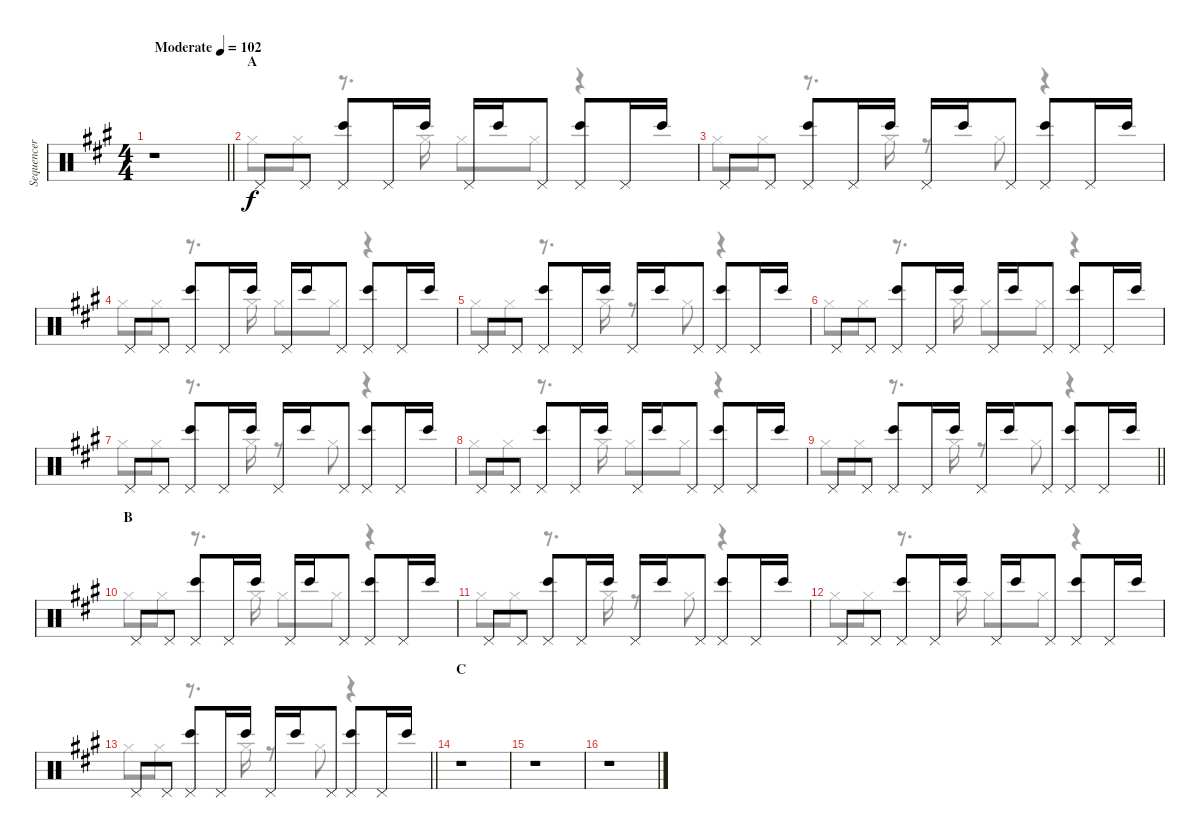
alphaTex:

\track ("Sequencer" "Sequencer") {instrument percussion}
\staff {score}
\articulation defaults
\voice
\ts (4 4)
\tempo (102 "Moderate")
\clef neutral
\barLineRight lightlight
\ks a
r.1{dy f} |
\section ("" "A")
"Pedal Hi-Hat (hit)".8{volume 10} "Pedal Hi-Hat (hit)".8 ("Pedal Hi-Hat (hit)" "Bongo High (hit)").8 "Pedal Hi-Hat (hit)".16 "Bongo High (hit)".16 "Pedal Hi-Hat (hit)".16 "Bongo High (hit)".16 "Pedal Hi-Hat (hit)".8 ("Pedal Hi-Hat (hit)" "Bongo High (hit)").8 "Pedal Hi-Hat (hit)".16 "Bongo High (hit)".16 |
"Pedal Hi-Hat (hit)".8 "Pedal Hi-Hat (hit)".8 ("Pedal Hi-Hat (hit)" "Bongo High (hit)").8 "Pedal Hi-Hat (hit)".16 "Bongo High (hit)".16 "Pedal Hi-Hat (hit)".16 "Bongo High (hit)".16 "Pedal Hi-Hat (hit)".8 ("Pedal Hi-Hat (hit)" "Bongo High (hit)").8 "Pedal Hi-Hat (hit)".16 "Bongo High (hit)".16 |
"Pedal Hi-Hat (hit)".8 "Pedal Hi-Hat (hit)".8 ("Pedal Hi-Hat (hit)" "Bongo High (hit)").8 "Pedal Hi-Hat (hit)".16 "Bongo High (hit)".16 "Pedal Hi-Hat (hit)".16 "Bongo High (hit)".16 "Pedal Hi-Hat (hit)".8 ("Pedal Hi-Hat (hit)" "Bongo High (hit)").8 "Pedal Hi-Hat (hit)".16 "Bongo High (hit)".16 |
"Pedal Hi-Hat (hit)".8 "Pedal Hi-Hat (hit)".8 ("Pedal Hi-Hat (hit)" "Bongo High (hit)").8 "Pedal Hi-Hat (hit)".16 "Bongo High (hit)".16 "Pedal Hi-Hat (hit)".16 "Bongo High (hit)".16 "Pedal Hi-Hat (hit)".8 ("Pedal Hi-Hat (hit)" "Bongo High (hit)").8 "Pedal Hi-Hat (hit)".16 "Bongo High (hit)".16 |
"Pedal Hi-Hat (hit)".8 "Pedal Hi-Hat (hit)".8 ("Pedal Hi-Hat (hit)" "Bongo High (hit)").8 "Pedal Hi-Hat (hit)".16 "Bongo High (hit)".16 "Pedal Hi-Hat (hit)".16 "Bongo High (hit)".16 "Pedal Hi-Hat (hit)".8 ("Pedal Hi-Hat (hit)" "Bongo High (hit)").8 "Pedal Hi-Hat (hit)".16 "Bongo High (hit)".16 |
"Pedal Hi-Hat (hit)".8 "Pedal Hi-Hat (hit)".8 ("Pedal Hi-Hat (hit)" "Bongo High (hit)").8 "Pedal Hi-Hat (hit)".16 "Bongo High (hit)".16 "Pedal Hi-Hat (hit)".16 "Bongo High (hit)".16 "Pedal Hi-Hat (hit)".8 ("Pedal Hi-Hat (hit)" "Bongo High (hit)").8 "Pedal Hi-Hat (hit)".16 "Bongo High (hit)".16 |
"Pedal Hi-Hat (hit)".8 "Pedal Hi-Hat (hit)".8 ("Pedal Hi-Hat (hit)" "Bongo High (hit)").8 "Pedal Hi-Hat (hit)".16 "Bongo High (hit)".16 "Pedal Hi-Hat (hit)".16 "Bongo High (hit)".16 "Pedal Hi-Hat (hit)".8 ("Pedal Hi-Hat (hit)" "Bongo High (hit)").8 "Pedal Hi-Hat (hit)".16 "Bongo High (hit)".16 |
\barLineRight lightlight "Pedal Hi-Hat (hit)".8 "Pedal Hi-Hat (hit)".8
("Pedal Hi-Hat (hit)" "Bongo High (hit)").8 "Pedal Hi-Hat (hit)".16 "Bongo High (hit)".16 "Pedal Hi-Hat (hit)".16 "Bongo High (hit)".16 "Pedal Hi-Hat (hit)".8 ("Pedal Hi-Hat (hit)" "Bongo High (hit)").8 "Pedal Hi-Hat (hit)".16 "Bongo High (hit)".16 |
\section ("" "B")
"Pedal Hi-Hat (hit)".8 "Pedal Hi-Hat (hit)".8 ("Pedal Hi-Hat (hit)" "Bongo High (hit)").8 "Pedal Hi-Hat (hit)".16 "Bongo High (hit)".16 "Pedal Hi-Hat (hit)".16 "Bongo High (hit)".16 "Pedal Hi-Hat (hit)".8 ("Pedal Hi-Hat (hit)" "Bongo High (hit)").8 "Pedal Hi-Hat (hit)".16 "Bongo High (hit)".16 |
"Pedal Hi-Hat (hit)".8 "Pedal Hi-Hat (hit)".8 ("Pedal Hi-Hat (hit)" "Bongo High (hit)").8 "Pedal Hi-Hat (hit)".16 "Bongo High (hit)".16 "Pedal Hi-Hat (hit)".16 "Bongo High (hit)".16 "Pedal Hi-Hat (hit)".8 ("Pedal Hi-Hat (hit)" "Bongo High (hit)").8 "Pedal Hi-Hat (hit)".16 "Bongo High (hit)".16 |
"Pedal Hi-Hat (hit)".8 "Pedal Hi-Hat (hit)".8 ("Pedal Hi-Hat (hit)" "Bongo High (hit)").8 "Pedal Hi-Hat (hit)".16 "Bongo High (hit)".16 "Pedal Hi-Hat (hit)".16 "Bongo High (hit)".16 "Pedal Hi-Hat (hit)".8 ("Pedal Hi-Hat (hit)" "Bongo High (hit)").8 "Pedal Hi-Hat (hit)".16 "Bongo High (hit)".16 |
\barLineRight lightlight "Pedal Hi-Hat (hit)".8 "Pedal Hi-Hat (hit)".8
("Pedal Hi-Hat (hit)" "Bongo High (hit)").8 "Pedal Hi-Hat (hit)".16 "Bongo High (hit)".16 "Pedal Hi-Hat (hit)".16 "Bongo High (hit)".16 "Pedal Hi-Hat (hit)".8 ("Pedal Hi-Hat (hit)" "Bongo High (hit)").8 "Pedal Hi-Hat (hit)".16 "Bongo High (hit)".16 |
\section ("" "C")
r.1 |
r.1 |
r.1
\voice
\clef neutral
\ottava regular
\simile none
\barLineRight lightlight
\ks a
r.1{dy f} |
"Hi-Hat (closed)".8 "Hi-Hat (closed)".8 r.8{d} "Hi-Hat (closed)".16 "Hi-Hat (closed)".8 "Hi-Hat (closed)".8 r.4 |
"Hi-Hat (closed)".8 "Hi-Hat (closed)".8 r.8{d} "Hi-Hat (closed)".16 r.8 "Hi-Hat (closed)".8 r.4 |
"Hi-Hat (closed)".8 "Hi-Hat (closed)".8 r.8{d} "Hi-Hat (closed)".16 "Hi-Hat (closed)".8 "Hi-Hat (closed)".8 r.4 |
"Hi-Hat (closed)".8 "Hi-Hat (closed)".8 r.8{d} "Hi-Hat (closed)".16 r.8 "Hi-Hat (closed)".8 r.4 |
"Hi-Hat (closed)".8 "Hi-Hat (closed)".8 r.8{d} "Hi-Hat (closed)".16 "Hi-Hat (closed)".8 "Hi-Hat (closed)".8 r.4 |
"Hi-Hat (closed)".8 "Hi-Hat (closed)".8 r.8{d} "Hi-Hat (closed)".16 r.8 "Hi-Hat (closed)".8 r.4 |
"Hi-Hat (closed)".8 "Hi-Hat (closed)".8 r.8{d} "Hi-Hat (closed)".16 "Hi-Hat (closed)".8 "Hi-Hat (closed)".8 r.4 |
\barLineRight lightlight "Hi-Hat (closed)".8 "Hi-Hat (closed)".8
r.8{d} "Hi-Hat (closed)".16 r.8 "Hi-Hat (closed)".8 r.4 |
"Hi-Hat (closed)".8 "Hi-Hat (closed)".8 r.8{d} "Hi-Hat (closed)".16 "Hi-Hat (closed)".8 "Hi-Hat (closed)".8 r.4 |
"Hi-Hat (closed)".8 "Hi-Hat (closed)".8 r.8{d} "Hi-Hat (closed)".16 r.8 "Hi-Hat (closed)".8 r.4 |
"Hi-Hat (closed)".8 "Hi-Hat (closed)".8 r.8{d} "Hi-Hat (closed)".16 "Hi-Hat (closed)".8 "Hi-Hat (closed)".8 r.4 |
\barLineRight lightlight "Hi-Hat (closed)".8 "Hi-Hat (closed)".8
r.8{d} "Hi-Hat (closed)".16 r.8 "Hi-Hat (closed)".8 r.4 |
r.1 |
r.1 |
r.1
